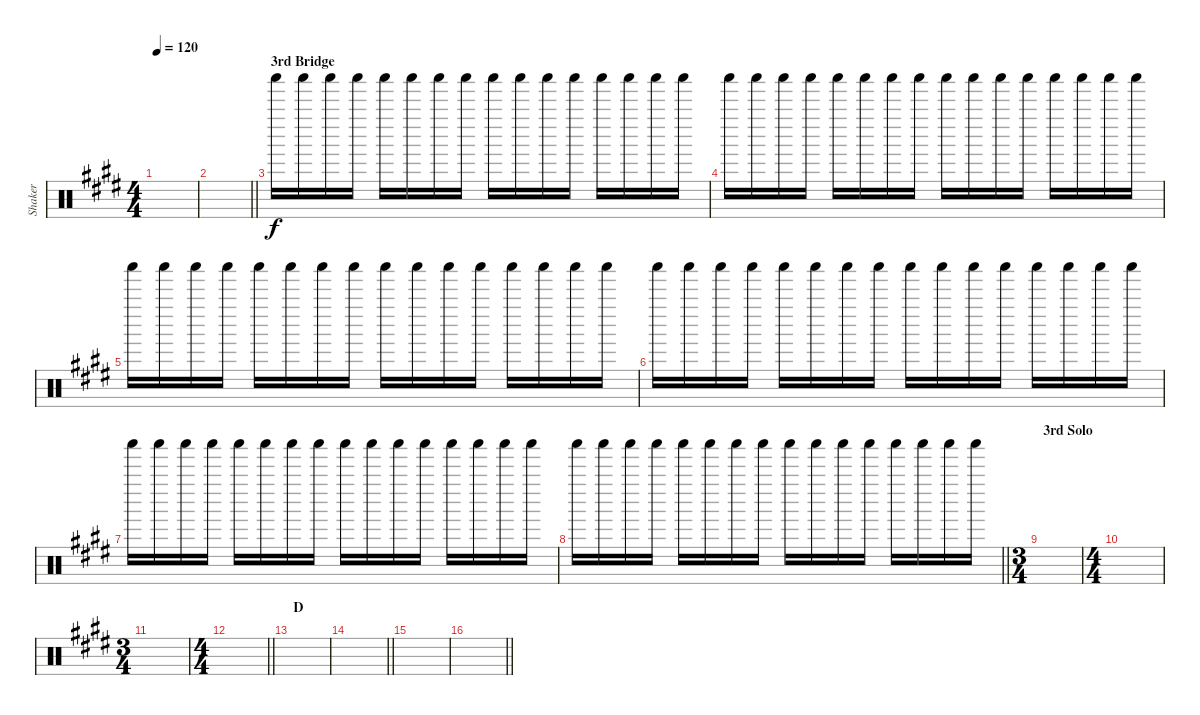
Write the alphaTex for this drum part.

\track ("Shaker" "Shaker") {instrument percussion}
\staff {score}
\articulation defaults
\ts (4 4)
\tempo 120
\clef neutral
\ks e
|
\barLineRight lightlight
|
\section ("" "3rd Bridge")
"Shaker (hit)".16 "Shaker (hit)".16 "Shaker (hit)".16 "Shaker (hit)".16 "Shaker (hit)".16 "Shaker (hit)".16 "Shaker (hit)".16 "Shaker (hit)".16 "Shaker (hit)".16 "Shaker (hit)".16 "Shaker (hit)".16 "Shaker (hit)".16 "Shaker (hit)".16 "Shaker (hit)".16 "Shaker (hit)".16 "Shaker (hit)".16 |
"Shaker (hit)".16 "Shaker (hit)".16 "Shaker (hit)".16 "Shaker (hit)".16 "Shaker (hit)".16 "Shaker (hit)".16 "Shaker (hit)".16 "Shaker (hit)".16 "Shaker (hit)".16 "Shaker (hit)".16 "Shaker (hit)".16 "Shaker (hit)".16 "Shaker (hit)".16 "Shaker (hit)".16 "Shaker (hit)".16 "Shaker (hit)".16 |
"Shaker (hit)".16 "Shaker (hit)".16 "Shaker (hit)".16 "Shaker (hit)".16 "Shaker (hit)".16 "Shaker (hit)".16 "Shaker (hit)".16 "Shaker (hit)".16 "Shaker (hit)".16 "Shaker (hit)".16 "Shaker (hit)".16 "Shaker (hit)".16 "Shaker (hit)".16 "Shaker (hit)".16 "Shaker (hit)".16 "Shaker (hit)".16 |
"Shaker (hit)".16 "Shaker (hit)".16 "Shaker (hit)".16 "Shaker (hit)".16 "Shaker (hit)".16 "Shaker (hit)".16 "Shaker (hit)".16 "Shaker (hit)".16 "Shaker (hit)".16 "Shaker (hit)".16 "Shaker (hit)".16 "Shaker (hit)".16 "Shaker (hit)".16 "Shaker (hit)".16 "Shaker (hit)".16 "Shaker (hit)".16 |
"Shaker (hit)".16 "Shaker (hit)".16 "Shaker (hit)".16 "Shaker (hit)".16 "Shaker (hit)".16 "Shaker (hit)".16 "Shaker (hit)".16 "Shaker (hit)".16 "Shaker (hit)".16 "Shaker (hit)".16 "Shaker (hit)".16 "Shaker (hit)".16 "Shaker (hit)".16 "Shaker (hit)".16 "Shaker (hit)".16 "Shaker (hit)".16 |
\barLineRight lightlight "Shaker (hit)".16 "Shaker (hit)".16 "Shaker (hit)".16 "Shaker (hit)".16 "Shaker (hit)".16 "Shaker (hit)".16 "Shaker (hit)".16 "Shaker (hit)".16 "Shaker (hit)".16 "Shaker (hit)".16 "Shaker (hit)".16 "Shaker (hit)".16 "Shaker (hit)".16 "Shaker (hit)".16 "Shaker (hit)".16 "Shaker (hit)".16
|
\ts (3 4)
\section ("" "3rd Solo")
|
\ts (4 4)
|
\ts (3 4)
|
\ts (4 4)
\barLineRight lightlight
|
\section ("" "D")
|
\barLineRight lightlight
|
|
\barLineRight lightlight
